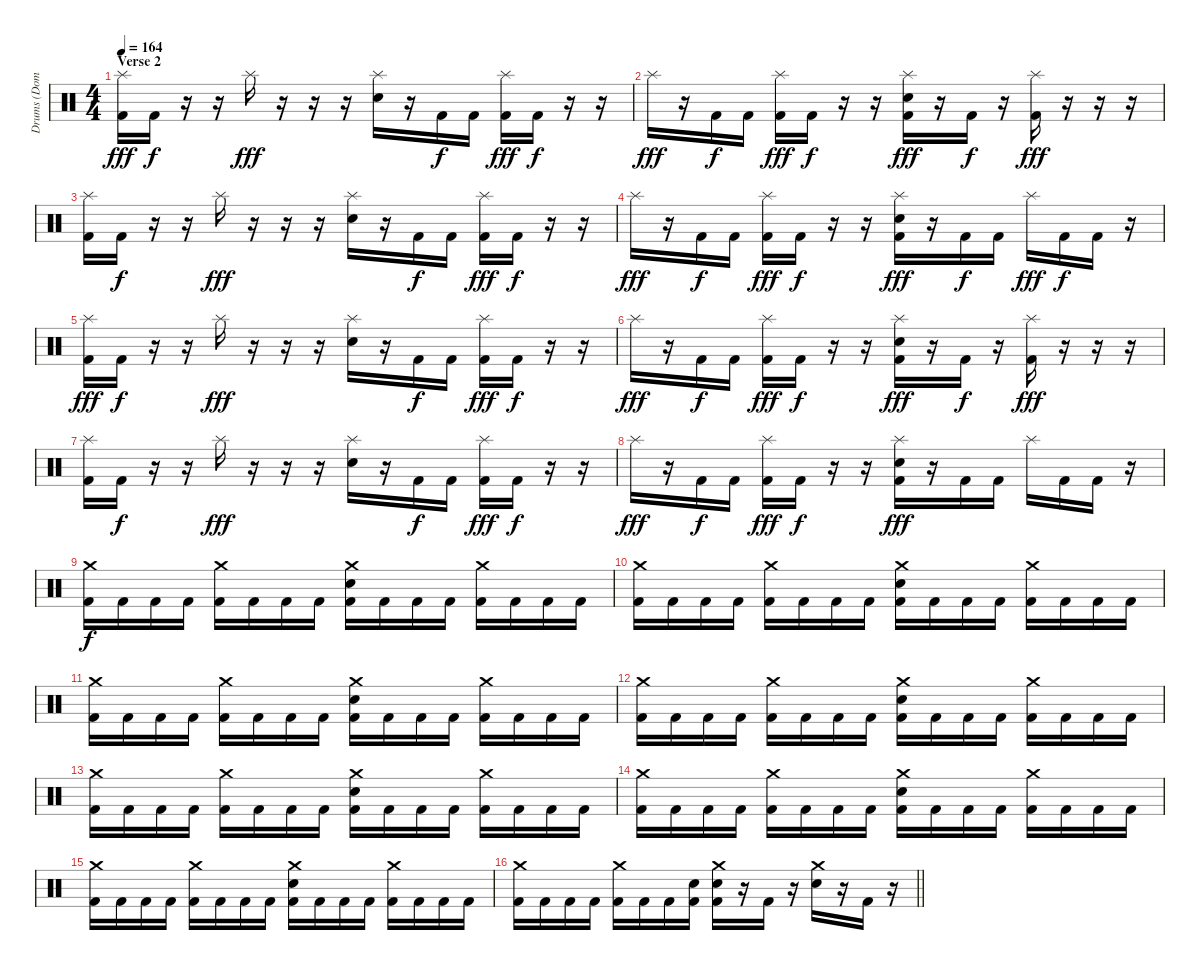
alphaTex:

\track ("Drums (Dominik)" "Drums (Dom") {instrument percussion}
\staff {score}
\articulation defaults
\ts (4 4)
\section ("" "Verse 2")
\tempo 164
\clef neutral
\ks c
("Splash (hit)" "Kick (hit) 2").16{dy fff} "Kick (hit) 2".16{dy f} r.16 r.16 "Splash (hit)".16{dy fff} r.16 r.16 r.16 ("Splash (hit)" "Electric Snare (hit)").16 r.16 "Kick (hit) 2".16{dy f} "Kick (hit) 2".16 ("Splash (hit)" "Kick (hit) 2").16{dy fff} "Kick (hit) 2".16{dy f} r.16 r.16 |
"Splash (hit)".16{dy fff} r.16 "Kick (hit) 2".16{dy f} "Kick (hit) 2".16 ("Splash (hit)" "Kick (hit) 2").16{dy fff} "Kick (hit) 2".16{dy f} r.16 r.16 ("Splash (hit)" "Electric Snare (hit)" "Kick (hit) 2").16{dy fff} r.16 "Kick (hit) 2".16{dy f} r.16 ("Splash (hit)" "Kick (hit) 2").16{dy fff} r.16 r.16 r.16 |
("Splash (hit)" "Kick (hit) 2").16 "Kick (hit) 2".16{dy f} r.16 r.16 "Splash (hit)".16{dy fff} r.16 r.16 r.16 ("Splash (hit)" "Electric Snare (hit)").16 r.16 "Kick (hit) 2".16{dy f} "Kick (hit) 2".16 ("Splash (hit)" "Kick (hit) 2").16{dy fff} "Kick (hit) 2".16{dy f} r.16 r.16 |
"Splash (hit)".16{dy fff} r.16 "Kick (hit) 2".16{dy f} "Kick (hit) 2".16 ("Splash (hit)" "Kick (hit) 2").16{dy fff} "Kick (hit) 2".16{dy f} r.16 r.16 ("Splash (hit)" "Electric Snare (hit)" "Kick (hit) 2").16{dy fff} r.16 "Kick (hit) 2".16{dy f} "Kick (hit) 2".16 "Splash (hit)".16{dy fff} "Kick (hit) 2".16{dy f} "Kick (hit) 2".16 r.16 |
("Splash (hit)" "Kick (hit) 2").16{dy fff} "Kick (hit) 2".16{dy f} r.16 r.16 "Splash (hit)".16{dy fff} r.16 r.16 r.16 ("Splash (hit)" "Electric Snare (hit)").16 r.16 "Kick (hit) 2".16{dy f} "Kick (hit) 2".16 ("Splash (hit)" "Kick (hit) 2").16{dy fff} "Kick (hit) 2".16{dy f} r.16 r.16 |
"Splash (hit)".16{dy fff} r.16 "Kick (hit) 2".16{dy f} "Kick (hit) 2".16 ("Splash (hit)" "Kick (hit) 2").16{dy fff} "Kick (hit) 2".16{dy f} r.16 r.16 ("Splash (hit)" "Electric Snare (hit)" "Kick (hit) 2").16{dy fff} r.16 "Kick (hit) 2".16{dy f} r.16 ("Splash (hit)" "Kick (hit) 2").16{dy fff} r.16 r.16 r.16 |
("Splash (hit)" "Kick (hit) 2").16 "Kick (hit) 2".16{dy f} r.16 r.16 "Splash (hit)".16{dy fff} r.16 r.16 r.16 ("Splash (hit)" "Electric Snare (hit)").16 r.16 "Kick (hit) 2".16{dy f} "Kick (hit) 2".16 ("Splash (hit)" "Kick (hit) 2").16{dy fff} "Kick (hit) 2".16{dy f} r.16 r.16 |
"Splash (hit)".16{dy fff} r.16 "Kick (hit) 2".16{dy f} "Kick (hit) 2".16 ("Splash (hit)" "Kick (hit) 2").16{dy fff} "Kick (hit) 2".16{dy f} r.16 r.16 ("Splash (hit)" "Electric Snare (hit)" "Kick (hit) 2").16{dy fff} r.16 "Kick (hit) 2".16 "Kick (hit) 2".16 "Splash (hit)".16 "Kick (hit) 2".16 "Kick (hit) 2".16 r.16 |
("Crash medium (hit)" "Kick (hit) 2").16{dy f} "Kick (hit) 2".16 "Kick (hit) 2".16 "Kick (hit) 2".16 ("Crash medium (hit)" "Kick (hit) 2").16 "Kick (hit) 2".16 "Kick (hit) 2".16 "Kick (hit) 2".16 ("Crash medium (hit)" "Electric Snare (hit)" "Kick (hit) 2").16 "Kick (hit) 2".16 "Kick (hit) 2".16 "Kick (hit) 2".16 ("Crash medium (hit)" "Kick (hit) 2").16 "Kick (hit) 2".16 "Kick (hit) 2".16 "Kick (hit) 2".16 |
("Crash medium (hit)" "Kick (hit) 2").16 "Kick (hit) 2".16 "Kick (hit) 2".16 "Kick (hit) 2".16 ("Crash medium (hit)" "Kick (hit) 2").16 "Kick (hit) 2".16 "Kick (hit) 2".16 "Kick (hit) 2".16 ("Crash medium (hit)" "Electric Snare (hit)" "Kick (hit) 2").16 "Kick (hit) 2".16 "Kick (hit) 2".16 "Kick (hit) 2".16 ("Crash medium (hit)" "Kick (hit) 2").16 "Kick (hit) 2".16 "Kick (hit) 2".16 "Kick (hit) 2".16 |
("Crash medium (hit)" "Kick (hit) 2").16 "Kick (hit) 2".16 "Kick (hit) 2".16 "Kick (hit) 2".16 ("Crash medium (hit)" "Kick (hit) 2").16 "Kick (hit) 2".16 "Kick (hit) 2".16 "Kick (hit) 2".16 ("Crash medium (hit)" "Electric Snare (hit)" "Kick (hit) 2").16 "Kick (hit) 2".16 "Kick (hit) 2".16 "Kick (hit) 2".16 ("Crash medium (hit)" "Kick (hit) 2").16 "Kick (hit) 2".16 "Kick (hit) 2".16 "Kick (hit) 2".16 |
("Crash medium (hit)" "Kick (hit) 2").16 "Kick (hit) 2".16 "Kick (hit) 2".16 "Kick (hit) 2".16 ("Crash medium (hit)" "Kick (hit) 2").16 "Kick (hit) 2".16 "Kick (hit) 2".16 "Kick (hit) 2".16 ("Crash medium (hit)" "Electric Snare (hit)" "Kick (hit) 2").16 "Kick (hit) 2".16 "Kick (hit) 2".16 "Kick (hit) 2".16 ("Crash medium (hit)" "Kick (hit) 2").16 "Kick (hit) 2".16 "Kick (hit) 2".16 "Kick (hit) 2".16 |
("Crash medium (hit)" "Kick (hit) 2").16 "Kick (hit) 2".16 "Kick (hit) 2".16 "Kick (hit) 2".16 ("Crash medium (hit)" "Kick (hit) 2").16 "Kick (hit) 2".16 "Kick (hit) 2".16 "Kick (hit) 2".16 ("Crash medium (hit)" "Electric Snare (hit)" "Kick (hit) 2").16 "Kick (hit) 2".16 "Kick (hit) 2".16 "Kick (hit) 2".16 ("Crash medium (hit)" "Kick (hit) 2").16 "Kick (hit) 2".16 "Kick (hit) 2".16 "Kick (hit) 2".16 |
("Crash medium (hit)" "Kick (hit) 2").16 "Kick (hit) 2".16 "Kick (hit) 2".16 "Kick (hit) 2".16 ("Crash medium (hit)" "Kick (hit) 2").16 "Kick (hit) 2".16 "Kick (hit) 2".16 "Kick (hit) 2".16 ("Crash medium (hit)" "Electric Snare (hit)" "Kick (hit) 2").16 "Kick (hit) 2".16 "Kick (hit) 2".16 "Kick (hit) 2".16 ("Crash medium (hit)" "Kick (hit) 2").16 "Kick (hit) 2".16 "Kick (hit) 2".16 "Kick (hit) 2".16 |
("Crash medium (hit)" "Kick (hit) 2").16 "Kick (hit) 2".16 "Kick (hit) 2".16 "Kick (hit) 2".16 ("Crash medium (hit)" "Kick (hit) 2").16 "Kick (hit) 2".16 "Kick (hit) 2".16 "Kick (hit) 2".16 ("Crash medium (hit)" "Electric Snare (hit)" "Kick (hit) 2").16 "Kick (hit) 2".16 "Kick (hit) 2".16 "Kick (hit) 2".16 ("Crash medium (hit)" "Kick (hit) 2").16 "Kick (hit) 2".16 "Kick (hit) 2".16 "Kick (hit) 2".16 |
\barLineRight lightlight
("Crash medium (hit)" "Kick (hit) 2").16 "Kick (hit) 2".16 "Kick (hit) 2".16 "Kick (hit) 2".16 ("Crash medium (hit)" "Kick (hit) 2").16 "Kick (hit) 2".16 "Kick (hit) 2".16 ("Electric Snare (hit)" "Kick (hit) 2").16 ("Crash medium (hit)" "Electric Snare (hit)" "Kick (hit) 2").16 r.16 "Kick (hit) 2".16 r.16 ("Crash medium (hit)" "Electric Snare (hit)").16 r.16 "Kick (hit) 2".16 r.16
